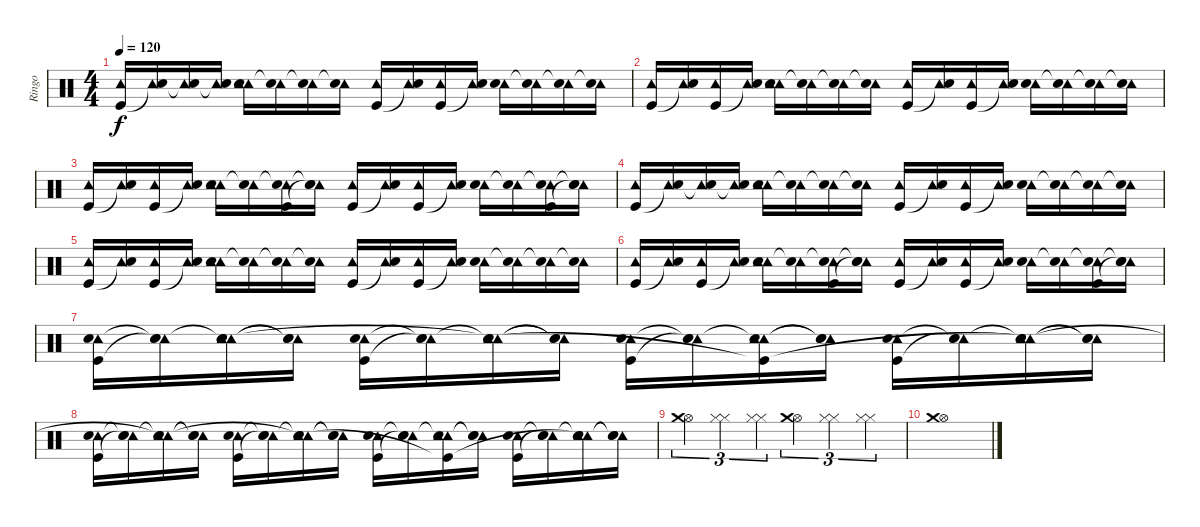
\track ("Ringo" "Ringo") {instrument percussion}
\staff {score}
\articulation defaults
\ts (4 4)
\tempo 120
\clef neutral
\ks c
("Tambourine (hit)" "Kick (hit)").16{dy f} ("Tambourine (hit)" "Snare (hit)"{t}).16 ("Tambourine (hit)" "Snare (hit)"{t}).16 ("Tambourine (hit)" "Snare (hit)"{t}).16 ("Tambourine (hit)" "Tambourine (hit)" "Snare (hit) 2").16 ("Tambourine (hit)" "Snare (hit)"{t}).16 ("Tambourine (hit)" "Snare (hit)"{t}).16 ("Tambourine (hit)" "Snare (hit)"{t}).16 ("Tambourine (hit)" "Kick (hit)").16 ("Tambourine (hit)" "Snare (hit)"{t}).16 ("Tambourine (hit)" "Kick (hit)").16 ("Tambourine (hit)" "Snare (hit)"{t}).16 ("Tambourine (hit)" "Snare (hit) 2").16 ("Tambourine (hit)" "Snare (hit)"{t}).16 ("Tambourine (hit)" "Snare (hit)"{t}).16 ("Tambourine (hit)" "Snare (hit)"{t}).16 |
("Tambourine (hit)" "Kick (hit)").16 ("Tambourine (hit)" "Snare (hit)"{t}).16 ("Tambourine (hit)" "Kick (hit)").16 ("Tambourine (hit)" "Snare (hit)"{t}).16 ("Tambourine (hit)" "Tambourine (hit)" "Snare (hit) 2").16 ("Tambourine (hit)" "Snare (hit)"{t}).16 ("Tambourine (hit)" "Snare (hit)"{t}).16 ("Tambourine (hit)" "Snare (hit)"{t}).16 ("Tambourine (hit)" "Kick (hit)").16 ("Tambourine (hit)" "Snare (hit)"{t}).16 ("Tambourine (hit)" "Kick (hit)").16 ("Tambourine (hit)" "Snare (hit)"{t}).16 ("Tambourine (hit)" "Snare (hit) 2").16 ("Tambourine (hit)" "Snare (hit)"{t}).16 ("Tambourine (hit)" "Snare (hit)"{t}).16 ("Tambourine (hit)" "Snare (hit)"{t}).16 |
("Tambourine (hit)" "Kick (hit)").16 ("Tambourine (hit)" "Snare (hit)"{t}).16 ("Tambourine (hit)" "Kick (hit)").16 ("Tambourine (hit)" "Snare (hit)"{t}).16 ("Tambourine (hit)" "Tambourine (hit)" "Snare (hit) 2").16 ("Tambourine (hit)" "Snare (hit)"{t}).16 ("Tambourine (hit)" "Snare (hit)"{t} "Kick (hit)").16 ("Tambourine (hit)" "Snare (hit)"{t} "Snare (hit)"{t}).16 ("Tambourine (hit)" "Kick (hit)").16 ("Tambourine (hit)" "Snare (hit)"{t}).16 ("Tambourine (hit)" "Kick (hit)").16 ("Tambourine (hit)" "Snare (hit)"{t}).16 ("Tambourine (hit)" "Snare (hit) 2").16 ("Tambourine (hit)" "Snare (hit)"{t}).16 ("Tambourine (hit)" "Snare (hit)"{t} "Kick (hit)").16 ("Tambourine (hit)" "Snare (hit)"{t} "Snare (hit)"{t}).16 |
("Tambourine (hit)" "Kick (hit)").16 ("Tambourine (hit)" "Snare (hit)"{t}).16 ("Tambourine (hit)" "Snare (hit)"{t}).16 ("Tambourine (hit)" "Snare (hit)"{t}).16 ("Tambourine (hit)" "Tambourine (hit)" "Snare (hit) 2").16 ("Tambourine (hit)" "Snare (hit)"{t}).16 ("Tambourine (hit)" "Snare (hit)"{t}).16 ("Tambourine (hit)" "Snare (hit)"{t}).16 ("Tambourine (hit)" "Kick (hit)").16 ("Tambourine (hit)" "Snare (hit)"{t}).16 ("Tambourine (hit)" "Kick (hit)").16 ("Tambourine (hit)" "Snare (hit)"{t}).16 ("Tambourine (hit)" "Snare (hit) 2").16 ("Tambourine (hit)" "Snare (hit)"{t}).16 ("Tambourine (hit)" "Snare (hit)"{t}).16 ("Tambourine (hit)" "Snare (hit)"{t}).16 |
("Tambourine (hit)" "Kick (hit)").16 ("Tambourine (hit)" "Snare (hit)"{t}).16 ("Tambourine (hit)" "Kick (hit)").16 ("Tambourine (hit)" "Snare (hit)"{t}).16 ("Tambourine (hit)" "Tambourine (hit)" "Snare (hit) 2").16 ("Tambourine (hit)" "Snare (hit)"{t}).16 ("Tambourine (hit)" "Snare (hit)"{t}).16 ("Tambourine (hit)" "Snare (hit)"{t}).16 ("Tambourine (hit)" "Kick (hit)").16 ("Tambourine (hit)" "Snare (hit)"{t}).16 ("Tambourine (hit)" "Kick (hit)").16 ("Tambourine (hit)" "Snare (hit)"{t}).16 ("Tambourine (hit)" "Snare (hit) 2").16 ("Tambourine (hit)" "Snare (hit)"{t}).16 ("Tambourine (hit)" "Snare (hit)"{t}).16 ("Tambourine (hit)" "Snare (hit)"{t}).16 |
("Tambourine (hit)" "Kick (hit)").16 ("Tambourine (hit)" "Snare (hit)"{t}).16 ("Tambourine (hit)" "Kick (hit)").16 ("Tambourine (hit)" "Snare (hit)"{t}).16 ("Tambourine (hit)" "Tambourine (hit)" "Snare (hit) 2").16 ("Tambourine (hit)" "Snare (hit)"{t}).16 ("Tambourine (hit)" "Snare (hit)"{t} "Kick (hit)").16 ("Tambourine (hit)" "Snare (hit)"{t} "Snare (hit)"{t}).16 ("Tambourine (hit)" "Kick (hit)").16 ("Tambourine (hit)" "Snare (hit)"{t}).16 ("Tambourine (hit)" "Kick (hit)").16 ("Tambourine (hit)" "Snare (hit)"{t}).16 ("Tambourine (hit)" "Snare (hit) 2").16 ("Tambourine (hit)" "Snare (hit)"{t}).16 ("Tambourine (hit)" "Snare (hit)"{t} "Kick (hit)").16 ("Tambourine (hit)" "Snare (hit)"{t} "Snare (hit)"{t}).16 |
("Tambourine (hit)" "Snare (hit) 2" "Kick (hit)").16 ("Tambourine (hit)" "Snare (hit)"{t} "Snare (hit)"{t}).16 ("Tambourine (hit)" "Tambourine (hit)" "Snare (hit)"{t} "Snare (hit)").16 ("Tambourine (hit)" "Snare (hit)"{t} "Snare (hit)"{t}).16 ("Tambourine (hit)" "Snare (hit) 2" "Kick (hit)").16 ("Tambourine (hit)" "Snare (hit)"{t} "Snare (hit)"{t}).16 ("Tambourine (hit)" "Tambourine (hit)" "Snare (hit)"{t} "Snare (hit)"{t}).16 ("Tambourine (hit)" "Snare (hit)"{t} "Snare (hit)"{t}).16 ("Tambourine (hit)" "Snare (hit) 2" "Kick (hit)").16 ("Tambourine (hit)" "Snare (hit)"{t} "Snare (hit)"{t}).16 ("Tambourine (hit)" "Tambourine (hit)" "Snare (hit)"{t} "Kick (hit)"{t}).16 ("Tambourine (hit)" "Snare (hit)"{t} "Snare (hit)"{t}).16 ("Tambourine (hit)" "Snare (hit) 2" "Kick (hit)").16 ("Tambourine (hit)" "Snare (hit)"{t} "Snare (hit)"{t}).16 ("Tambourine (hit)" "Tambourine (hit)" "Snare (hit)"{t} "Snare (hit)"{t}).16 ("Tambourine (hit)" "Snare (hit)"{t} "Snare (hit)"{t}).16 |
("Tambourine (hit)" "Snare (hit) 2" "Kick (hit)").16 ("Tambourine (hit)" "Snare (hit)"{t} "Snare (hit)"{t}).16 ("Tambourine (hit)" "Tambourine (hit)" "Snare (hit)"{t} "Snare (hit)"{t}).16 ("Tambourine (hit)" "Snare (hit)"{t} "Snare (hit)"{t}).16 ("Tambourine (hit)" "Snare (hit) 2" "Kick (hit)").16 ("Tambourine (hit)" "Snare (hit)"{t} "Snare (hit)"{t}).16 ("Tambourine (hit)" "Tambourine (hit)" "Snare (hit)"{t} "Snare (hit)"{t}).16 ("Tambourine (hit)" "Snare (hit)"{t} "Snare (hit)"{t}).16 ("Tambourine (hit)" "Snare (hit) 2" "Kick (hit)").16 ("Tambourine (hit)" "Snare (hit)"{t} "Snare (hit)"{t}).16 ("Tambourine (hit)" "Tambourine (hit)" "Snare (hit)"{t} "Kick (hit)"{t}).16 ("Tambourine (hit)" "Snare (hit)"{t} "Snare (hit)"{t}).16 ("Tambourine (hit)" "Snare (hit) 2" "Kick (hit)").16 ("Tambourine (hit)" "Snare (hit)"{t} "Snare (hit)"{t}).16 ("Tambourine (hit)" "Tambourine (hit)" "Snare (hit)"{t} "Snare (hit)"{t}).16 ("Tambourine (hit)" "Snare (hit)"{t} "Snare (hit)"{t}).16 |
("Hi-Hat (open)" "Crash medium (hit)").4{tu (3 2)} ("Hi-Hat (closed)" "Hi-Hat (closed)").4{tu (3 2)} ("Hi-Hat (closed)" "Hi-Hat (closed)").4{tu (3 2)} ("Hi-Hat (open)" "Crash medium (hit)").4{tu (3 2)} ("Hi-Hat (closed)" "Hi-Hat (closed)").4{tu (3 2)} ("Hi-Hat (closed)" "Hi-Hat (closed)").4{tu (3 2)} |
("Hi-Hat (open)" "Crash medium (hit)").1
